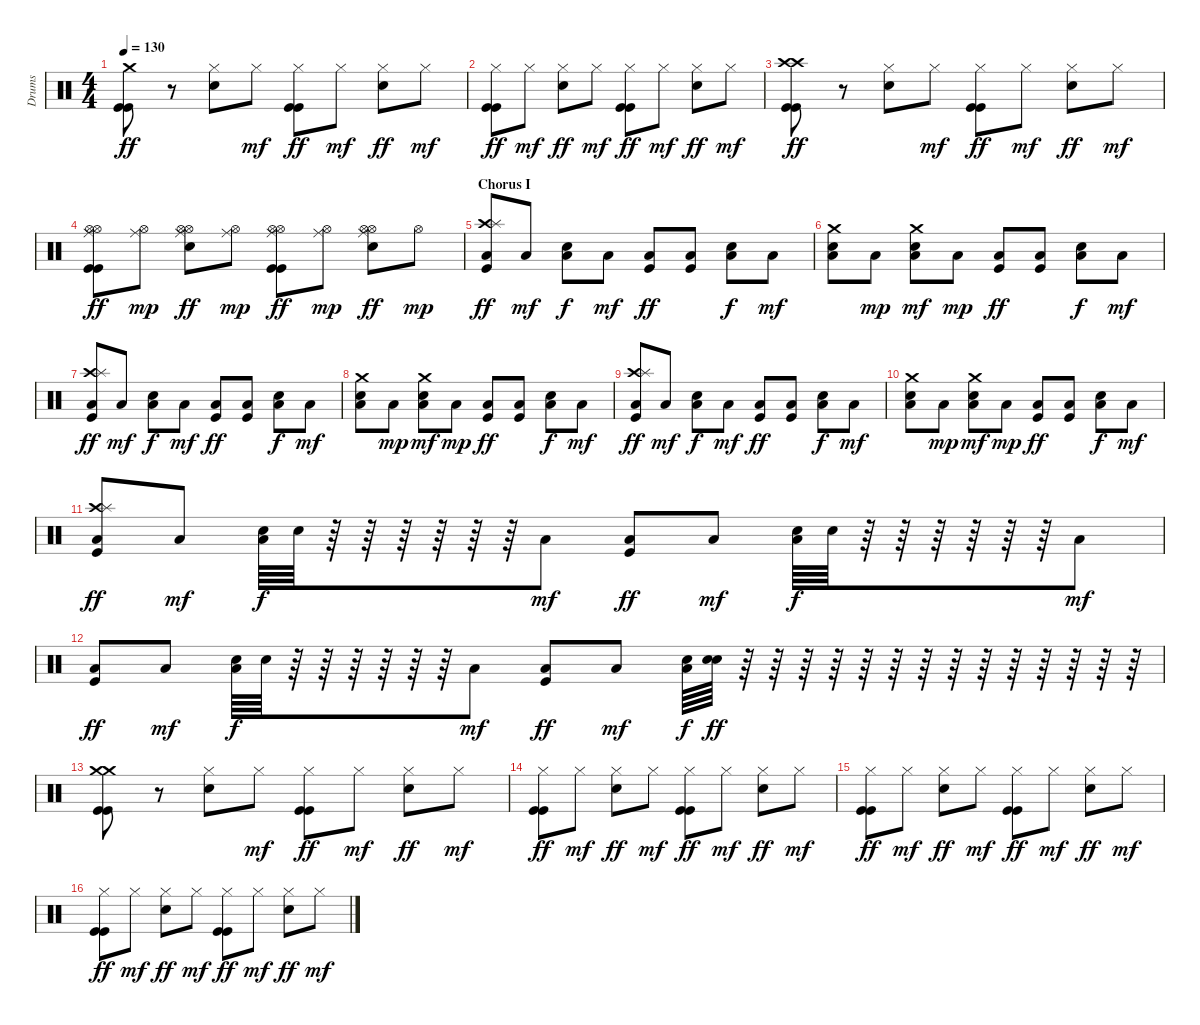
\track ("Drums" "Drums") {instrument percussion}
\staff {score}
\articulation defaults
\ts (4 4)
\tempo 130
\clef neutral
\ks c
("Crash medium (hit)" "Kick (hit)" "Kick (hit)").8{dy ff} r.8 ("Hi-Hat (closed)" "Snare (hit) 2").8 "Hi-Hat (closed)".8{dy mf} ("Hi-Hat (closed)" "Kick (hit)" "Kick (hit)").8{dy ff} "Hi-Hat (closed)".8{dy mf} ("Hi-Hat (closed)" "Snare (hit) 2").8{dy ff} "Hi-Hat (closed)".8{dy mf} |
("Hi-Hat (closed)" "Kick (hit)" "Kick (hit)").8{dy ff} "Hi-Hat (closed)".8{dy mf} ("Hi-Hat (closed)" "Snare (hit) 2").8{dy ff} "Hi-Hat (closed)".8{dy mf} ("Hi-Hat (closed)" "Kick (hit)" "Kick (hit)").8{dy ff} "Hi-Hat (closed)".8{dy mf} ("Hi-Hat (closed)" "Snare (hit) 2").8{dy ff} "Hi-Hat (closed)".8{dy mf} |
("Crash high (hit)" "Crash high (hit)" "Kick (hit)" "Kick (hit)").8{dy ff} r.8 ("Hi-Hat (closed)" "Snare (hit) 2").8 "Hi-Hat (closed)".8{dy mf} ("Hi-Hat (closed)" "Kick (hit)" "Kick (hit)").8{dy ff} "Hi-Hat (closed)".8{dy mf} ("Hi-Hat (closed)" "Snare (hit) 2").8{dy ff} "Hi-Hat (closed)".8{dy mf} |
("Hi-Hat (open)" "Hi-Hat (open)" "Ride (middle)" "Kick (hit)" "Kick (hit)").8{dy ff} ("Hi-Hat (open)" "Ride (middle)").8{dy mp} ("Hi-Hat (open)" "Hi-Hat (open)" "Ride (middle)" "Snare (hit) 2").8{dy ff} ("Hi-Hat (open)" "Ride (middle)").8{dy mp} ("Hi-Hat (open)" "Hi-Hat (open)" "Ride (middle)" "Kick (hit)" "Kick (hit)").8{dy ff} ("Hi-Hat (open)" "Ride (middle)").8{dy mp} ("Hi-Hat (open)" "Hi-Hat (open)" "Ride (middle)" "Snare (hit) 2").8{dy ff} "Hi-Hat (open)".8{dy mp} |
\section ("" "Chorus I")
("Crash high (hit)" "Splash (hit)" "Low Floor Tom (hit)" "Kick (hit)").8{dy ff} "Low Floor Tom (hit)".8{dy mf} ("Snare (hit) 2" "Low Floor Tom (hit)").8{dy f} "Low Floor Tom (hit)".8{dy mf} ("Low Floor Tom (hit)" "Kick (hit)").8{dy ff} ("Low Floor Tom (hit)" "Kick (hit)").8 ("Snare (hit) 2" "Low Floor Tom (hit)").8{dy f} "Low Floor Tom (hit)".8{dy mf} |
("Crash medium (hit)" "Snare (hit) 2" "Low Floor Tom (hit)").8 "Low Floor Tom (hit)".8{dy mp} ("Crash medium (hit)" "Snare (hit) 2" "Low Floor Tom (hit)").8{dy mf} "Low Floor Tom (hit)".8{dy mp} ("Low Floor Tom (hit)" "Kick (hit)").8{dy ff} ("Low Floor Tom (hit)" "Kick (hit)").8 ("Snare (hit) 2" "Low Floor Tom (hit)").8{dy f} "Low Floor Tom (hit)".8{dy mf} |
("Crash high (hit)" "Splash (hit)" "Low Floor Tom (hit)" "Kick (hit)").8{dy ff} "Low Floor Tom (hit)".8{dy mf} ("Snare (hit) 2" "Low Floor Tom (hit)").8{dy f} "Low Floor Tom (hit)".8{dy mf} ("Low Floor Tom (hit)" "Kick (hit)").8{dy ff} ("Low Floor Tom (hit)" "Kick (hit)").8 ("Snare (hit) 2" "Low Floor Tom (hit)").8{dy f} "Low Floor Tom (hit)".8{dy mf} |
("Crash medium (hit)" "Snare (hit) 2" "Low Floor Tom (hit)").8 "Low Floor Tom (hit)".8{dy mp} ("Crash medium (hit)" "Snare (hit) 2" "Low Floor Tom (hit)").8{dy mf} "Low Floor Tom (hit)".8{dy mp} ("Low Floor Tom (hit)" "Kick (hit)").8{dy ff} ("Low Floor Tom (hit)" "Kick (hit)").8 ("Snare (hit) 2" "Low Floor Tom (hit)").8{dy f} "Low Floor Tom (hit)".8{dy mf} |
("Crash high (hit)" "Splash (hit)" "Low Floor Tom (hit)" "Kick (hit)").8{dy ff} "Low Floor Tom (hit)".8{dy mf} ("Snare (hit) 2" "Low Floor Tom (hit)").8{dy f} "Low Floor Tom (hit)".8{dy mf} ("Low Floor Tom (hit)" "Kick (hit)").8{dy ff} ("Low Floor Tom (hit)" "Kick (hit)").8 ("Snare (hit) 2" "Low Floor Tom (hit)").8{dy f} "Low Floor Tom (hit)".8{dy mf} |
("Crash medium (hit)" "Snare (hit) 2" "Low Floor Tom (hit)").8 "Low Floor Tom (hit)".8{dy mp} ("Crash medium (hit)" "Snare (hit) 2" "Low Floor Tom (hit)").8{dy mf} "Low Floor Tom (hit)".8{dy mp} ("Low Floor Tom (hit)" "Kick (hit)").8{dy ff} ("Low Floor Tom (hit)" "Kick (hit)").8 ("Snare (hit) 2" "Low Floor Tom (hit)").8{dy f} "Low Floor Tom (hit)".8{dy mf} |
("Crash high (hit)" "Splash (hit)" "Low Floor Tom (hit)" "Kick (hit)").8{dy ff} "Low Floor Tom (hit)".8{dy mf} ("Snare (hit) 2" "Low Floor Tom (hit)").64{dy f} "Snare (hit) 2".64 r.64 r.64 r.64 r.64 r.64 r.64 "Low Floor Tom (hit)".8{dy mf} ("Low Floor Tom (hit)" "Kick (hit)").8{dy ff} "Low Floor Tom (hit)".8{dy mf} ("Snare (hit) 2" "Low Floor Tom (hit)").64{dy f} "Snare (hit) 2".64 r.64 r.64 r.64 r.64 r.64 r.64 "Low Floor Tom (hit)".8{dy mf} |
("Low Floor Tom (hit)" "Kick (hit)").8{dy ff} "Low Floor Tom (hit)".8{dy mf} ("Snare (hit) 2" "Low Floor Tom (hit)").64{dy f} "Snare (hit) 2".64 r.64 r.64 r.64 r.64 r.64 r.64 "Low Floor Tom (hit)".8{dy mf} ("Low Floor Tom (hit)" "Kick (hit)").8{dy ff} "Low Floor Tom (hit)".8{dy mf} ("Snare (hit) 2" "Low Floor Tom (hit)").64{dy f} ("Snare (hit) 2" "Snare (hit) 2").64{dy ff} r.64 r.64 r.64 r.64 r.64 r.64 r.64 r.64 r.64 r.64 r.64 r.64 r.64 r.64 |
("Crash medium (hit)" "Crash medium (hit)" "Kick (hit)" "Kick (hit)").8 r.8 ("Hi-Hat (closed)" "Snare (hit) 2").8 "Hi-Hat (closed)".8{dy mf} ("Hi-Hat (closed)" "Kick (hit)" "Kick (hit)").8{dy ff} "Hi-Hat (closed)".8{dy mf} ("Hi-Hat (closed)" "Snare (hit) 2").8{dy ff} "Hi-Hat (closed)".8{dy mf} |
("Hi-Hat (closed)" "Kick (hit)" "Kick (hit)").8{dy ff} "Hi-Hat (closed)".8{dy mf} ("Hi-Hat (closed)" "Snare (hit) 2").8{dy ff} "Hi-Hat (closed)".8{dy mf} ("Hi-Hat (closed)" "Kick (hit)" "Kick (hit)").8{dy ff} "Hi-Hat (closed)".8{dy mf} ("Hi-Hat (closed)" "Snare (hit) 2").8{dy ff} "Hi-Hat (closed)".8{dy mf} |
("Hi-Hat (closed)" "Kick (hit)" "Kick (hit)").8{dy ff} "Hi-Hat (closed)".8{dy mf} ("Hi-Hat (closed)" "Snare (hit) 2").8{dy ff} "Hi-Hat (closed)".8{dy mf} ("Hi-Hat (closed)" "Kick (hit)" "Kick (hit)").8{dy ff} "Hi-Hat (closed)".8{dy mf} ("Hi-Hat (closed)" "Snare (hit) 2").8{dy ff} "Hi-Hat (closed)".8{dy mf} |
("Hi-Hat (closed)" "Kick (hit)" "Kick (hit)").8{dy ff} "Hi-Hat (closed)".8{dy mf} ("Hi-Hat (closed)" "Snare (hit) 2").8{dy ff} "Hi-Hat (closed)".8{dy mf} ("Hi-Hat (closed)" "Kick (hit)" "Kick (hit)").8{dy ff} "Hi-Hat (closed)".8{dy mf} ("Hi-Hat (closed)" "Snare (hit) 2").8{dy ff} "Hi-Hat (closed)".8{dy mf}
